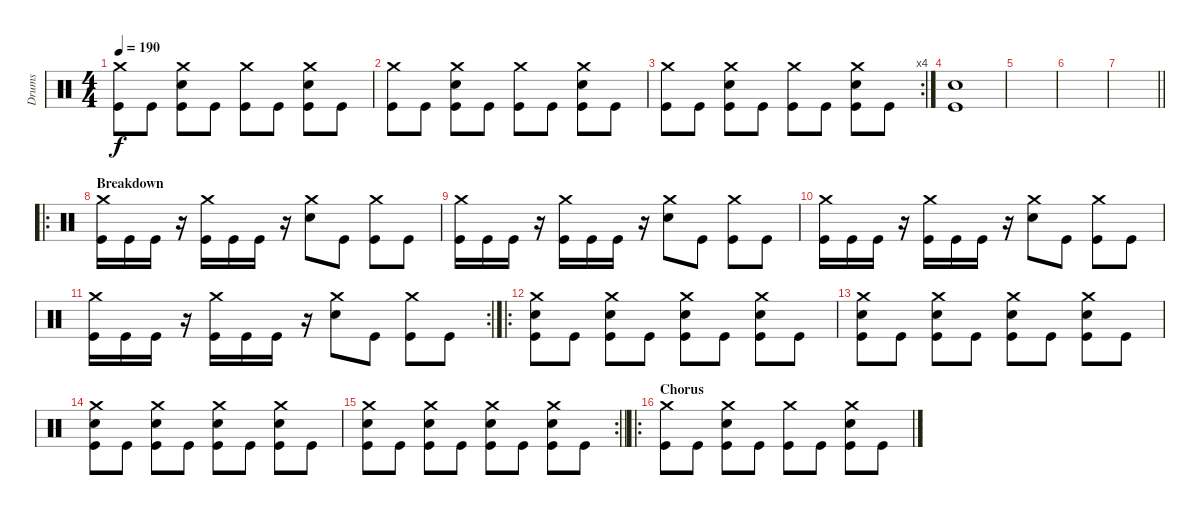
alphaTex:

\track ("Drums" "Drums") {instrument percussion}
\staff {score}
\articulation defaults
\ts (4 4)
\tempo 190
\clef neutral
\ks c
("Crash medium (hit)" "Kick (hit)").8{dy f} "Kick (hit)".8 ("Crash medium (hit)" "Snare (hit) 2" "Kick (hit)").8 "Kick (hit)".8 ("Crash medium (hit)" "Kick (hit)").8 "Kick (hit)".8 ("Crash medium (hit)" "Snare (hit) 2" "Kick (hit)").8 "Kick (hit)".8 |
("Crash medium (hit)" "Kick (hit)").8 "Kick (hit)".8 ("Crash medium (hit)" "Snare (hit) 2" "Kick (hit)").8 "Kick (hit)".8 ("Crash medium (hit)" "Kick (hit)").8 "Kick (hit)".8 ("Crash medium (hit)" "Snare (hit) 2" "Kick (hit)").8 "Kick (hit)".8 |
\rc 4
("Crash medium (hit)" "Kick (hit)").8 "Kick (hit)".8 ("Crash medium (hit)" "Snare (hit) 2" "Kick (hit)").8 "Kick (hit)".8 ("Crash medium (hit)" "Kick (hit)").8 "Kick (hit)".8 ("Crash medium (hit)" "Snare (hit) 2" "Kick (hit)").8 "Kick (hit)".8 |
("Snare (hit) 2" "Kick (hit)").1 |
|
|
\barLineRight lightlight
|
\ro
\section ("" "Breakdown")
("Crash medium (hit)" "Kick (hit)").16 "Kick (hit)".16 "Kick (hit)".16 r.16 ("Crash medium (hit)" "Kick (hit)").16 "Kick (hit)".16 "Kick (hit)".16 r.16 ("Crash medium (hit)" "Snare (hit) 2").8 "Kick (hit)".8 ("Crash medium (hit)" "Kick (hit)").8 "Kick (hit)".8 |
("Crash medium (hit)" "Kick (hit)").16 "Kick (hit)".16 "Kick (hit)".16 r.16 ("Crash medium (hit)" "Kick (hit)").16 "Kick (hit)".16 "Kick (hit)".16 r.16 ("Crash medium (hit)" "Snare (hit) 2").8 "Kick (hit)".8 ("Crash medium (hit)" "Kick (hit)").8 "Kick (hit)".8 |
("Crash medium (hit)" "Kick (hit)").16 "Kick (hit)".16 "Kick (hit)".16 r.16 ("Crash medium (hit)" "Kick (hit)").16 "Kick (hit)".16 "Kick (hit)".16 r.16 ("Crash medium (hit)" "Snare (hit) 2").8 "Kick (hit)".8 ("Crash medium (hit)" "Kick (hit)").8 "Kick (hit)".8 |
\rc 2
("Crash medium (hit)" "Kick (hit)").16 "Kick (hit)".16 "Kick (hit)".16 r.16 ("Crash medium (hit)" "Kick (hit)").16 "Kick (hit)".16 "Kick (hit)".16 r.16 ("Crash medium (hit)" "Snare (hit) 2").8 "Kick (hit)".8 ("Crash medium (hit)" "Kick (hit)").8 "Kick (hit)".8 |
\ro
("Crash medium (hit)" "Snare (hit) 2" "Kick (hit)").8 "Kick (hit)".8 ("Crash medium (hit)" "Snare (hit) 2" "Kick (hit)").8 "Kick (hit)".8 ("Crash medium (hit)" "Snare (hit) 2" "Kick (hit)").8 "Kick (hit)".8 ("Crash medium (hit)" "Snare (hit) 2" "Kick (hit)").8 "Kick (hit)".8 |
("Crash medium (hit)" "Snare (hit) 2" "Kick (hit)").8 "Kick (hit)".8 ("Crash medium (hit)" "Snare (hit) 2" "Kick (hit)").8 "Kick (hit)".8 ("Crash medium (hit)" "Snare (hit) 2" "Kick (hit)").8 "Kick (hit)".8 ("Crash medium (hit)" "Snare (hit) 2" "Kick (hit)").8 "Kick (hit)".8 |
("Crash medium (hit)" "Snare (hit) 2" "Kick (hit)").8 "Kick (hit)".8 ("Crash medium (hit)" "Snare (hit) 2" "Kick (hit)").8 "Kick (hit)".8 ("Crash medium (hit)" "Snare (hit) 2" "Kick (hit)").8 "Kick (hit)".8 ("Crash medium (hit)" "Snare (hit) 2" "Kick (hit)").8 "Kick (hit)".8 |
\rc 2
\barLineRight lightlight
("Crash medium (hit)" "Snare (hit) 2" "Kick (hit)").8 "Kick (hit)".8 ("Crash medium (hit)" "Snare (hit) 2" "Kick (hit)").8 "Kick (hit)".8 ("Crash medium (hit)" "Snare (hit) 2" "Kick (hit)").8 "Kick (hit)".8 ("Crash medium (hit)" "Snare (hit) 2" "Kick (hit)").8 "Kick (hit)".8 |
\ro
\section ("" "Chorus")
("Crash medium (hit)" "Kick (hit)").8 "Kick (hit)".8 ("Crash medium (hit)" "Snare (hit) 2" "Kick (hit)").8 "Kick (hit)".8 ("Crash medium (hit)" "Kick (hit)").8 "Kick (hit)".8 ("Crash medium (hit)" "Snare (hit) 2" "Kick (hit)").8 "Kick (hit)".8
